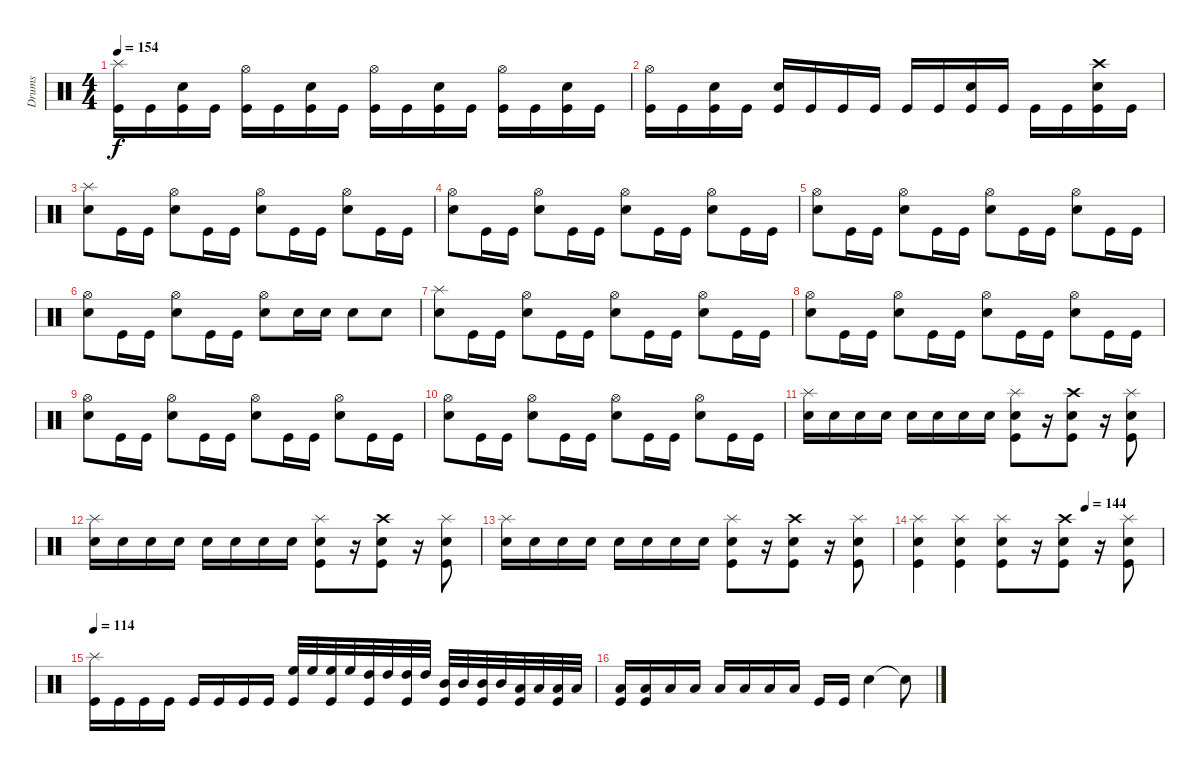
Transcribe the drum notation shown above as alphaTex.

\track ("Drums" "Drums") {instrument percussion}
\staff {score}
\articulation defaults
\ts (4 4)
\tempo 154
\clef neutral
\ks c
("Splash (hit)" "Kick (hit)").16{dy f} "Kick (hit)".16 ("Snare (hit) 2" "Kick (hit)").16 "Kick (hit)".16 ("Hi-Hat (open)" "Kick (hit)").16 "Kick (hit)".16 ("Snare (hit) 2" "Kick (hit)").16 "Kick (hit)".16 ("Hi-Hat (open)" "Kick (hit)").16 "Kick (hit)".16 ("Snare (hit) 2" "Kick (hit)").16 "Kick (hit)".16 ("Hi-Hat (open)" "Kick (hit)").16 "Kick (hit)".16 ("Snare (hit) 2" "Kick (hit)").16 "Kick (hit)".16 |
("Hi-Hat (open)" "Kick (hit)").16 "Kick (hit)".16 ("Snare (hit) 2" "Kick (hit)").16 "Kick (hit)".16 ("Snare (hit) 2" "Kick (hit)").16 "Kick (hit)".16 "Kick (hit)".16 "Kick (hit)".16 "Kick (hit)".16 "Kick (hit)".16 ("Snare (hit) 2" "Kick (hit)").16 "Kick (hit)".16 "Kick (hit)".16 "Kick (hit)".16 ("Crash high (hit)" "Snare (hit) 2" "Kick (hit)").16 "Kick (hit)".16 |
("Splash (hit)" "Snare (hit) 2").8 "Kick (hit)".16 "Kick (hit)".16 ("Hi-Hat (open)" "Snare (hit) 2").8 "Kick (hit)".16 "Kick (hit)".16 ("Hi-Hat (open)" "Snare (hit) 2").8 "Kick (hit)".16 "Kick (hit)".16 ("Hi-Hat (open)" "Snare (hit) 2").8 "Kick (hit)".16 "Kick (hit)".16 |
("Hi-Hat (open)" "Snare (hit) 2").8 "Kick (hit)".16 "Kick (hit)".16 ("Hi-Hat (open)" "Snare (hit) 2").8 "Kick (hit)".16 "Kick (hit)".16 ("Hi-Hat (open)" "Snare (hit) 2").8 "Kick (hit)".16 "Kick (hit)".16 ("Hi-Hat (open)" "Snare (hit) 2").8 "Kick (hit)".16 "Kick (hit)".16 |
("Hi-Hat (open)" "Snare (hit) 2").8 "Kick (hit)".16 "Kick (hit)".16 ("Hi-Hat (open)" "Snare (hit) 2").8 "Kick (hit)".16 "Kick (hit)".16 ("Hi-Hat (open)" "Snare (hit) 2").8 "Kick (hit)".16 "Kick (hit)".16 ("Hi-Hat (open)" "Snare (hit) 2").8 "Kick (hit)".16 "Kick (hit)".16 |
("Hi-Hat (open)" "Snare (hit) 2").8 "Kick (hit)".16 "Kick (hit)".16 ("Hi-Hat (open)" "Snare (hit) 2").8 "Kick (hit)".16 "Kick (hit)".16 ("Hi-Hat (open)" "Snare (hit) 2").8 "Snare (hit) 2".16 "Snare (hit) 2".16 "Snare (hit) 2".8 "Snare (hit) 2".8 |
("Splash (hit)" "Snare (hit) 2").8 "Kick (hit)".16 "Kick (hit)".16 ("Hi-Hat (open)" "Snare (hit) 2").8 "Kick (hit)".16 "Kick (hit)".16 ("Hi-Hat (open)" "Snare (hit) 2").8 "Kick (hit)".16 "Kick (hit)".16 ("Hi-Hat (open)" "Snare (hit) 2").8 "Kick (hit)".16 "Kick (hit)".16 |
("Hi-Hat (open)" "Snare (hit) 2").8 "Kick (hit)".16 "Kick (hit)".16 ("Hi-Hat (open)" "Snare (hit) 2").8 "Kick (hit)".16 "Kick (hit)".16 ("Hi-Hat (open)" "Snare (hit) 2").8 "Kick (hit)".16 "Kick (hit)".16 ("Hi-Hat (open)" "Snare (hit) 2").8 "Kick (hit)".16 "Kick (hit)".16 |
("Hi-Hat (open)" "Snare (hit) 2").8 "Kick (hit)".16 "Kick (hit)".16 ("Hi-Hat (open)" "Snare (hit) 2").8 "Kick (hit)".16 "Kick (hit)".16 ("Hi-Hat (open)" "Snare (hit) 2").8 "Kick (hit)".16 "Kick (hit)".16 ("Hi-Hat (open)" "Snare (hit) 2").8 "Kick (hit)".16 "Kick (hit)".16 |
("Hi-Hat (open)" "Snare (hit) 2").8 "Kick (hit)".16 "Kick (hit)".16 ("Hi-Hat (open)" "Snare (hit) 2").8 "Kick (hit)".16 "Kick (hit)".16 ("Hi-Hat (open)" "Snare (hit) 2").8 "Kick (hit)".16 "Kick (hit)".16 ("Hi-Hat (open)" "Snare (hit) 2").8 "Kick (hit)".16 "Kick (hit)".16 |
("Splash (hit)" "Snare (hit) 2").16 "Snare (hit) 2".16 "Snare (hit) 2".16 "Snare (hit) 2".16 "Snare (hit) 2".16 "Snare (hit) 2".16 "Snare (hit) 2".16 "Snare (hit) 2".16 ("Splash (hit)" "Snare (hit) 2" "Kick (hit)").8 r.16 ("Crash high (hit)" "Snare (hit) 2" "Kick (hit)").8 r.16 ("Splash (hit)" "Snare (hit) 2" "Kick (hit)").8 |
("Splash (hit)" "Snare (hit) 2").16 "Snare (hit) 2".16 "Snare (hit) 2".16 "Snare (hit) 2".16 "Snare (hit) 2".16 "Snare (hit) 2".16 "Snare (hit) 2".16 "Snare (hit) 2".16 ("Splash (hit)" "Snare (hit) 2" "Kick (hit)").8 r.16 ("Crash high (hit)" "Snare (hit) 2" "Kick (hit)").8 r.16 ("Splash (hit)" "Snare (hit) 2" "Kick (hit)").8 |
("Splash (hit)" "Snare (hit) 2").16 "Snare (hit) 2".16 "Snare (hit) 2".16 "Snare (hit) 2".16 "Snare (hit) 2".16 "Snare (hit) 2".16 "Snare (hit) 2".16 "Snare (hit) 2".16 ("Splash (hit)" "Snare (hit) 2" "Kick (hit)").8 r.16 ("Crash high (hit)" "Snare (hit) 2" "Kick (hit)").8 r.16 ("Splash (hit)" "Snare (hit) 2" "Kick (hit)").8 |
\tempo (144 0.6875)
("Splash (hit)" "Snare (hit) 2" "Kick (hit)").4 ("Splash (hit)" "Snare (hit) 2" "Kick (hit)").4 ("Splash (hit)" "Snare (hit) 2" "Kick (hit)").8 r.16 ("Crash high (hit)" "Snare (hit) 2" "Kick (hit)").8 r.16 ("Splash (hit)" "Snare (hit) 2" "Kick (hit)").8 |
\tempo 114
("Splash (hit)" "Kick (hit)").16 "Kick (hit)".16 "Kick (hit)".16 "Kick (hit)".16 "Kick (hit)".16 "Kick (hit)".16 "Kick (hit)".16 "Kick (hit)".16 ("High Floor Tom (hit)" "Kick (hit)").32 "High Floor Tom (hit)".32 ("High Floor Tom (hit)" "Kick (hit)").32 "High Floor Tom (hit)".32 ("High Tom (hit)" "Kick (hit)").32 "High Tom (hit)".32 ("High Tom (hit)" "Kick (hit)").32 "High Tom (hit)".32 ("Mid Tom (hit)" "Kick (hit)").32 "Mid Tom (hit)".32 ("Mid Tom (hit)" "Kick (hit)").32 "Mid Tom (hit)".32 ("Low Tom (hit)" "Kick (hit)").32 "Low Tom (hit)".32 ("Low Tom (hit)" "Kick (hit)").32 "Low Tom (hit)".32 |
("Low Tom (hit)" "Kick (hit)").16 ("Low Tom (hit)" "Kick (hit)").16 "Low Tom (hit)".16 "Low Tom (hit)".16 "Low Tom (hit)".16 "Low Tom (hit)".16 "Low Tom (hit)".16 "Low Tom (hit)".16 "Kick (hit)".16 "Kick (hit)".16 "Snare (hit) 2".4 "Snare (hit)"{t}.8
